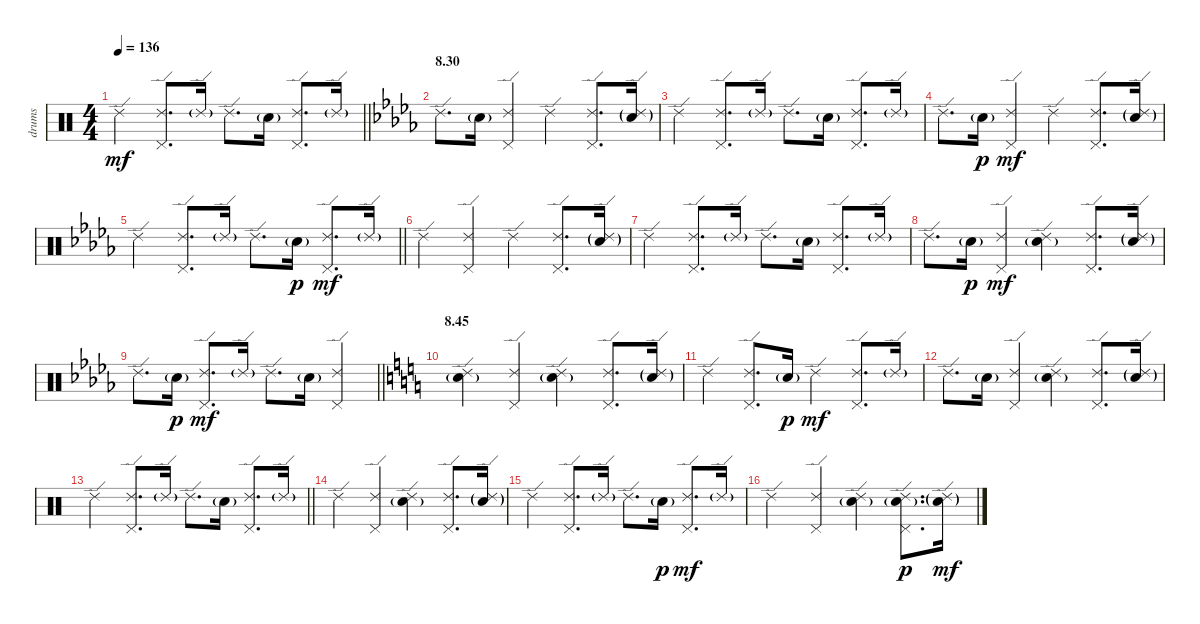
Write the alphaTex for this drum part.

\track ("drums" "drums") {instrument percussion}
\staff {score}
\articulation defaults
\ts (4 4)
\tempo 136
\clef neutral
\barLineRight lightlight
\ks c "Ride (edge) 2".4{dy mf}
("Ride (edge) 2" "Pedal Hi-Hat (hit)").8{d} "Ride (edge) 2"{g}.16 "Ride (edge) 2".8{d} "Electric Snare (hit)"{g}.16 ("Ride (edge) 2" "Pedal Hi-Hat (hit)").8{d} "Ride (edge) 2"{g}.16 |
\section ("" "8.30")
\ks db "Ride (edge) 2".8{d} "Electric Snare (hit)"{g}.16
("Ride (edge) 2" "Pedal Hi-Hat (hit)").4 "Ride (edge) 2".4 ("Ride (edge) 2" "Pedal Hi-Hat (hit)").8{d} ("Ride (edge) 2"{g} "Electric Snare (hit)"{g}).16 |
"Ride (edge) 2".4 ("Ride (edge) 2" "Pedal Hi-Hat (hit)").8{d} "Ride (edge) 2"{g}.16 "Ride (edge) 2".8{d} "Electric Snare (hit)"{g}.16 ("Ride (edge) 2" "Pedal Hi-Hat (hit)").8{d} "Ride (edge) 2"{g}.16 |
"Ride (edge) 2".8{d} "Electric Snare (hit)"{g}.16{dy p} ("Ride (edge) 2" "Pedal Hi-Hat (hit)").4{dy mf} "Ride (edge) 2".4 ("Ride (edge) 2" "Pedal Hi-Hat (hit)").8{d} ("Ride (edge) 2"{g} "Electric Snare (hit)"{g}).16 |
\barLineRight lightlight "Ride (edge) 2".4
("Ride (edge) 2" "Pedal Hi-Hat (hit)").8{d} "Ride (edge) 2"{g}.16 "Ride (edge) 2".8{d} "Electric Snare (hit)"{g}.16{dy p} ("Ride (edge) 2" "Pedal Hi-Hat (hit)").8{d dy mf} "Ride (edge) 2"{g}.16 |
"Ride (edge) 2".4 ("Ride (edge) 2" "Pedal Hi-Hat (hit)").4 "Ride (edge) 2".4 ("Ride (edge) 2" "Pedal Hi-Hat (hit)").8{d} ("Ride (edge) 2"{g} "Electric Snare (hit)"{g}).16 |
"Ride (edge) 2".4 ("Ride (edge) 2" "Pedal Hi-Hat (hit)").8{d} "Ride (edge) 2"{g}.16 "Ride (edge) 2".8{d} "Electric Snare (hit)"{g}.16 ("Ride (edge) 2" "Pedal Hi-Hat (hit)").8{d} "Ride (edge) 2"{g}.16 |
"Ride (edge) 2".8{d} "Electric Snare (hit)"{g}.16{dy p} ("Ride (edge) 2" "Pedal Hi-Hat (hit)").4{dy mf} ("Ride (edge) 2" "Electric Snare (hit)"{g}).4 ("Ride (edge) 2" "Pedal Hi-Hat (hit)").8{d} ("Ride (edge) 2"{g} "Electric Snare (hit)"{g}).16 |
\barLineRight lightlight "Ride (edge) 2".8{d} "Electric Snare (hit)"{g}.16{dy p}
("Ride (edge) 2" "Pedal Hi-Hat (hit)").8{d dy mf} "Ride (edge) 2"{g}.16 "Ride (edge) 2".8{d} "Electric Snare (hit)"{g}.16 ("Ride (edge) 2" "Pedal Hi-Hat (hit)").4 |
\section ("" "8.45")
\ks c
("Ride (edge) 2" "Electric Snare (hit)"{g}).4 ("Ride (edge) 2" "Pedal Hi-Hat (hit)").4 ("Ride (edge) 2" "Electric Snare (hit)"{g}).4 ("Ride (edge) 2" "Pedal Hi-Hat (hit)").8{d} ("Ride (edge) 2"{g} "Electric Snare (hit)"{g}).16 |
"Ride (edge) 2".4 ("Ride (edge) 2" "Pedal Hi-Hat (hit)").8{d} "Electric Snare (hit)"{g}.16{dy p} "Ride (edge) 2".4{dy mf} ("Ride (edge) 2" "Pedal Hi-Hat (hit)").8{d} "Ride (edge) 2"{g}.16 |
"Ride (edge) 2".8{d} "Electric Snare (hit)"{g}.16 ("Ride (edge) 2" "Pedal Hi-Hat (hit)").4 ("Ride (edge) 2" "Electric Snare (hit)"{g}).4 ("Ride (edge) 2" "Pedal Hi-Hat (hit)").8{d} ("Ride (edge) 2"{g} "Electric Snare (hit)"{g}).16 |
\barLineRight lightlight "Ride (edge) 2".4
("Ride (edge) 2" "Pedal Hi-Hat (hit)").8{d} "Ride (edge) 2"{g}.16 "Ride (edge) 2".8{d} "Electric Snare (hit)"{g}.16 ("Ride (edge) 2" "Pedal Hi-Hat (hit)").8{d} "Ride (edge) 2"{g}.16 |
"Ride (edge) 2".4 ("Ride (edge) 2" "Pedal Hi-Hat (hit)").4 ("Ride (edge) 2" "Electric Snare (hit)"{g}).4 ("Ride (edge) 2" "Pedal Hi-Hat (hit)").8{d} ("Ride (edge) 2"{g} "Electric Snare (hit)"{g}).16 |
"Ride (edge) 2".4 ("Ride (edge) 2" "Pedal Hi-Hat (hit)").8{d} "Ride (edge) 2"{g}.16 "Ride (edge) 2".8{d} "Electric Snare (hit)"{g}.16{dy p} ("Ride (edge) 2" "Pedal Hi-Hat (hit)").8{d dy mf} "Ride (edge) 2"{g}.16 |
"Ride (edge) 2".4 ("Ride (edge) 2" "Pedal Hi-Hat (hit)").4 ("Ride (edge) 2" "Electric Snare (hit)"{g}).4 ("Ride (edge) 2" "Pedal Hi-Hat (hit)" "Electric Snare (hit)"{g}).8{d dy p} ("Ride (edge) 2"{g} "Electric Snare (hit)"{g}).16{dy mf}
